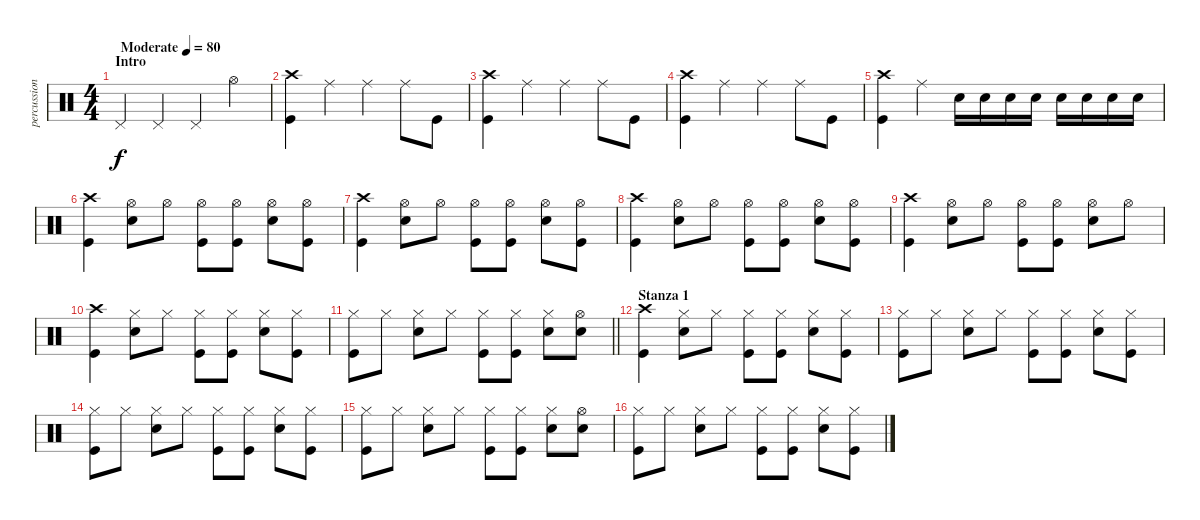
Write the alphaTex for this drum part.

\track ("percussion" "percussion") {instrument percussion}
\staff {score}
\articulation defaults
\ts (4 4)
\section ("" "Intro")
\tempo (80 "Moderate")
\clef neutral
\ks c "Pedal Hi-Hat (hit)".4{dy f} "Pedal Hi-Hat (hit)".4 "Pedal Hi-Hat (hit)".4 "Hi-Hat (open)".4
|
("Crash high (hit)" "Kick (hit)").4 "Ride (middle)".4 "Ride (middle)".4 "Ride (middle)".8 "Kick (hit)".8 |
("Crash high (hit)" "Kick (hit)").4 "Ride (middle)".4 "Ride (middle)".4 "Ride (middle)".8 "Kick (hit)".8 |
("Crash high (hit)" "Kick (hit)").4 "Ride (middle)".4 "Ride (middle)".4 "Ride (middle)".8 "Kick (hit)".8 |
("Crash high (hit)" "Kick (hit)").4 "Ride (middle)".4 "Snare (hit) 2".16 "Snare (hit) 2".16 "Snare (hit) 2".16 "Snare (hit) 2".16 "Snare (hit) 2".16 "Snare (hit) 2".16 "Snare (hit) 2".16 "Snare (hit) 2".16 |
("Crash high (hit)" "Kick (hit)").4 ("Hi-Hat (open)" "Snare (hit) 2").8 "Hi-Hat (open)".8 ("Hi-Hat (open)" "Kick (hit)").8 ("Hi-Hat (open)" "Kick (hit)").8 ("Hi-Hat (open)" "Snare (hit) 2").8 ("Hi-Hat (open)" "Kick (hit)").8 |
("Crash high (hit)" "Kick (hit)").4 ("Hi-Hat (open)" "Snare (hit) 2").8 "Hi-Hat (open)".8 ("Hi-Hat (open)" "Kick (hit)").8 ("Hi-Hat (open)" "Kick (hit)").8 ("Hi-Hat (open)" "Snare (hit) 2").8 ("Hi-Hat (open)" "Kick (hit)").8 |
("Crash high (hit)" "Kick (hit)").4 ("Hi-Hat (open)" "Snare (hit) 2").8 "Hi-Hat (open)".8 ("Hi-Hat (open)" "Kick (hit)").8 ("Hi-Hat (open)" "Kick (hit)").8 ("Hi-Hat (open)" "Snare (hit) 2").8 ("Hi-Hat (open)" "Kick (hit)").8 |
("Crash high (hit)" "Kick (hit)").4 ("Hi-Hat (open)" "Snare (hit) 2").8 "Hi-Hat (open)".8 ("Hi-Hat (open)" "Kick (hit)").8 ("Hi-Hat (open)" "Kick (hit)").8 ("Hi-Hat (open)" "Snare (hit) 2").8 "Hi-Hat (open)".8 |
("Crash high (hit)" "Kick (hit)").4 ("Hi-Hat (closed)" "Snare (hit) 2").8 "Hi-Hat (closed)".8 ("Hi-Hat (closed)" "Kick (hit)").8 ("Hi-Hat (closed)" "Kick (hit)").8 ("Hi-Hat (closed)" "Snare (hit) 2").8 ("Hi-Hat (closed)" "Kick (hit)").8 |
\barLineRight lightlight
("Hi-Hat (closed)" "Kick (hit)").8 "Hi-Hat (closed)".8 ("Hi-Hat (closed)" "Snare (hit) 2").8 "Hi-Hat (closed)".8 ("Hi-Hat (closed)" "Kick (hit)").8 ("Hi-Hat (closed)" "Kick (hit)").8 ("Hi-Hat (closed)" "Snare (hit) 2").8 ("Hi-Hat (open)" "Snare (hit) 2").8 |
\section ("" "Stanza 1")
("Crash high (hit)" "Kick (hit)").4 ("Hi-Hat (closed)" "Snare (hit) 2").8 "Hi-Hat (closed)".8 ("Hi-Hat (closed)" "Kick (hit)").8 ("Hi-Hat (closed)" "Kick (hit)").8 ("Hi-Hat (closed)" "Snare (hit) 2").8 ("Hi-Hat (closed)" "Kick (hit)").8 |
("Hi-Hat (closed)" "Kick (hit)").8 "Hi-Hat (closed)".8 ("Hi-Hat (closed)" "Snare (hit) 2").8 "Hi-Hat (closed)".8 ("Hi-Hat (closed)" "Kick (hit)").8 ("Hi-Hat (closed)" "Kick (hit)").8 ("Hi-Hat (closed)" "Snare (hit) 2").8 ("Hi-Hat (closed)" "Kick (hit)").8 |
("Hi-Hat (closed)" "Kick (hit)").8 "Hi-Hat (closed)".8 ("Hi-Hat (closed)" "Snare (hit) 2").8 "Hi-Hat (closed)".8 ("Hi-Hat (closed)" "Kick (hit)").8 ("Hi-Hat (closed)" "Kick (hit)").8 ("Hi-Hat (closed)" "Snare (hit) 2").8 ("Hi-Hat (closed)" "Kick (hit)").8 |
("Hi-Hat (closed)" "Kick (hit)").8 "Hi-Hat (closed)".8 ("Hi-Hat (closed)" "Snare (hit) 2").8 "Hi-Hat (closed)".8 ("Hi-Hat (closed)" "Kick (hit)").8 ("Hi-Hat (closed)" "Kick (hit)").8 ("Hi-Hat (closed)" "Snare (hit) 2").8 ("Hi-Hat (open)" "Snare (hit) 2").8 |
("Hi-Hat (closed)" "Kick (hit)").8 "Hi-Hat (closed)".8 ("Hi-Hat (closed)" "Snare (hit) 2").8 "Hi-Hat (closed)".8 ("Hi-Hat (closed)" "Kick (hit)").8 ("Hi-Hat (closed)" "Kick (hit)").8 ("Hi-Hat (closed)" "Snare (hit) 2").8 ("Hi-Hat (closed)" "Kick (hit)").8
